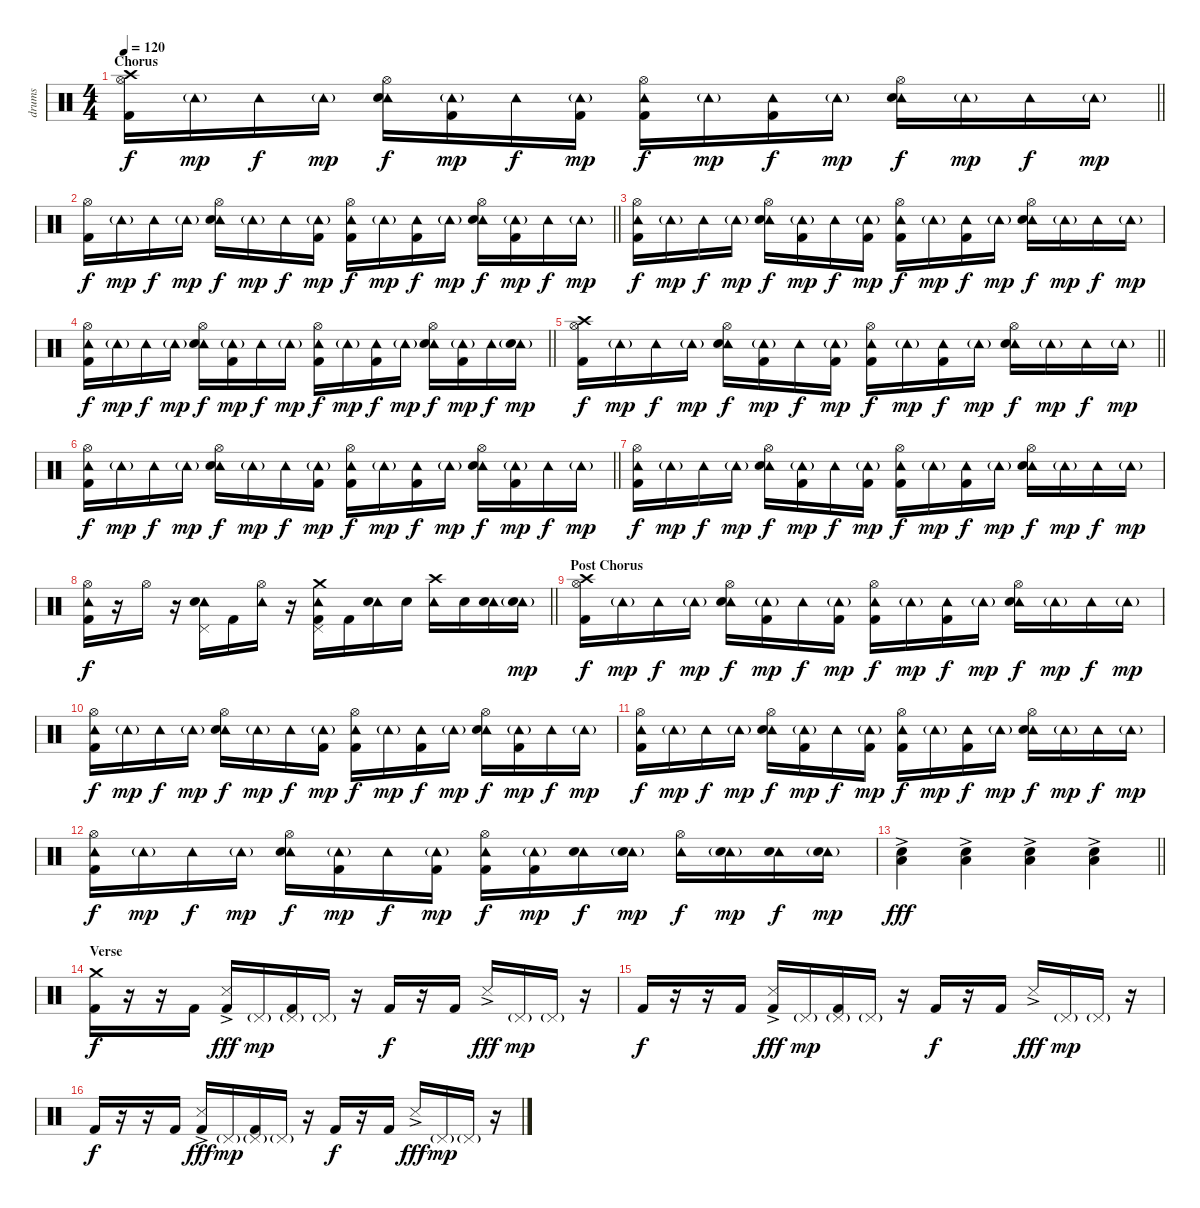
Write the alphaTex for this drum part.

\track ("drums" "drums") {instrument percussion}
\staff {score}
\articulation defaults
\ts (4 4)
\section ("" "Chorus")
\tempo 120
\clef neutral
\barLineRight lightlight
\ks c
("Hi-Hat (open)" "Crash high (hit)" "Kick (hit) 2").16{dy f} "Tambourine (hit)"{g}.16{dy mp} "Tambourine (hit)".16{dy f} "Tambourine (hit)"{g}.16{dy mp} ("Tambourine (hit)" "Hi-Hat (open)" "Electric Snare (hit)").16{dy f} ("Tambourine (hit)"{g} "Kick (hit) 2").16{dy mp} "Tambourine (hit)".16{dy f} ("Tambourine (hit)"{g} "Kick (hit) 2").16{dy mp} ("Tambourine (hit)" "Hi-Hat (open)" "Kick (hit) 2").16{dy f} "Tambourine (hit)"{g}.16{dy mp} ("Tambourine (hit)" "Kick (hit) 2").16{dy f} "Tambourine (hit)"{g}.16{dy mp} ("Tambourine (hit)" "Hi-Hat (open)" "Electric Snare (hit)").16{dy f} "Tambourine (hit)"{g}.16{dy mp} "Tambourine (hit)".16{dy f} "Tambourine (hit)"{g}.16{dy mp} |
\barLineRight lightlight
("Hi-Hat (open)" "Kick (hit) 2").16{dy f} "Tambourine (hit)"{g}.16{dy mp} "Tambourine (hit)".16{dy f} "Tambourine (hit)"{g}.16{dy mp} ("Tambourine (hit)" "Hi-Hat (open)" "Electric Snare (hit)").16{dy f} "Tambourine (hit)"{g}.16{dy mp} "Tambourine (hit)".16{dy f} ("Tambourine (hit)"{g} "Kick (hit) 2").16{dy mp} ("Tambourine (hit)" "Hi-Hat (open)" "Kick (hit) 2").16{dy f} "Tambourine (hit)"{g}.16{dy mp} ("Tambourine (hit)" "Kick (hit) 2").16{dy f} "Tambourine (hit)"{g}.16{dy mp} ("Tambourine (hit)" "Hi-Hat (open)" "Electric Snare (hit)").16{dy f} ("Tambourine (hit)"{g} "Kick (hit) 2").16{dy mp} "Tambourine (hit)".16{dy f} "Tambourine (hit)"{g}.16{dy mp} |
("Hi-Hat (open)" "Tambourine (hit)" "Kick (hit) 2").16{dy f} "Tambourine (hit)"{g}.16{dy mp} "Tambourine (hit)".16{dy f} "Tambourine (hit)"{g}.16{dy mp} ("Tambourine (hit)" "Hi-Hat (open)" "Electric Snare (hit)").16{dy f} ("Tambourine (hit)"{g} "Kick (hit) 2").16{dy mp} "Tambourine (hit)".16{dy f} ("Tambourine (hit)"{g} "Kick (hit) 2").16{dy mp} ("Tambourine (hit)" "Hi-Hat (open)" "Kick (hit) 2").16{dy f} "Tambourine (hit)"{g}.16{dy mp} ("Tambourine (hit)" "Kick (hit) 2").16{dy f} "Tambourine (hit)"{g}.16{dy mp} ("Tambourine (hit)" "Hi-Hat (open)" "Electric Snare (hit)").16{dy f} "Tambourine (hit)"{g}.16{dy mp} "Tambourine (hit)".16{dy f} "Tambourine (hit)"{g}.16{dy mp} |
\barLineRight lightlight
("Hi-Hat (open)" "Tambourine (hit)" "Kick (hit) 2").16{dy f} "Tambourine (hit)"{g}.16{dy mp} "Tambourine (hit)".16{dy f} "Tambourine (hit)"{g}.16{dy mp} ("Tambourine (hit)" "Hi-Hat (open)" "Electric Snare (hit)").16{dy f} ("Tambourine (hit)"{g} "Kick (hit) 2").16{dy mp} "Tambourine (hit)".16{dy f} "Tambourine (hit)"{g}.16{dy mp} ("Tambourine (hit)" "Hi-Hat (open)" "Kick (hit) 2").16{dy f} "Tambourine (hit)"{g}.16{dy mp} ("Tambourine (hit)" "Kick (hit) 2").16{dy f} "Tambourine (hit)"{g}.16{dy mp} ("Tambourine (hit)" "Hi-Hat (open)" "Electric Snare (hit)").16{dy f} ("Tambourine (hit)"{g} "Kick (hit) 2").16{dy mp} "Tambourine (hit)".16{dy f} ("Tambourine (hit)"{g} "Electric Snare (hit)").16{dy mp} |
\barLineRight lightlight
("Hi-Hat (open)" "Crash high (hit)" "Kick (hit) 2").16{dy f} "Tambourine (hit)"{g}.16{dy mp} "Tambourine (hit)".16{dy f} "Tambourine (hit)"{g}.16{dy mp} ("Tambourine (hit)" "Hi-Hat (open)" "Electric Snare (hit)").16{dy f} ("Tambourine (hit)"{g} "Kick (hit) 2").16{dy mp} "Tambourine (hit)".16{dy f} ("Tambourine (hit)"{g} "Kick (hit) 2").16{dy mp} ("Tambourine (hit)" "Hi-Hat (open)" "Kick (hit) 2").16{dy f} "Tambourine (hit)"{g}.16{dy mp} ("Tambourine (hit)" "Kick (hit) 2").16{dy f} "Tambourine (hit)"{g}.16{dy mp} ("Tambourine (hit)" "Hi-Hat (open)" "Electric Snare (hit)").16{dy f} "Tambourine (hit)"{g}.16{dy mp} "Tambourine (hit)".16{dy f} "Tambourine (hit)"{g}.16{dy mp} |
\barLineRight lightlight
("Hi-Hat (open)" "Tambourine (hit)" "Kick (hit) 2").16{dy f} "Tambourine (hit)"{g}.16{dy mp} "Tambourine (hit)".16{dy f} "Tambourine (hit)"{g}.16{dy mp} ("Tambourine (hit)" "Hi-Hat (open)" "Electric Snare (hit)").16{dy f} "Tambourine (hit)"{g}.16{dy mp} "Tambourine (hit)".16{dy f} ("Tambourine (hit)"{g} "Kick (hit) 2").16{dy mp} ("Tambourine (hit)" "Hi-Hat (open)" "Kick (hit) 2").16{dy f} "Tambourine (hit)"{g}.16{dy mp} ("Tambourine (hit)" "Kick (hit) 2").16{dy f} "Tambourine (hit)"{g}.16{dy mp} ("Tambourine (hit)" "Hi-Hat (open)" "Electric Snare (hit)").16{dy f} ("Tambourine (hit)"{g} "Kick (hit) 2").16{dy mp} "Tambourine (hit)".16{dy f} "Tambourine (hit)"{g}.16{dy mp} |
("Hi-Hat (open)" "Tambourine (hit)" "Kick (hit) 2").16{dy f} "Tambourine (hit)"{g}.16{dy mp} "Tambourine (hit)".16{dy f} "Tambourine (hit)"{g}.16{dy mp} ("Tambourine (hit)" "Hi-Hat (open)" "Electric Snare (hit)").16{dy f} ("Tambourine (hit)"{g} "Kick (hit) 2").16{dy mp} "Tambourine (hit)".16{dy f} ("Tambourine (hit)"{g} "Kick (hit) 2").16{dy mp} ("Tambourine (hit)" "Hi-Hat (open)" "Kick (hit) 2").16{dy f} "Tambourine (hit)"{g}.16{dy mp} ("Tambourine (hit)" "Kick (hit) 2").16{dy f} "Tambourine (hit)"{g}.16{dy mp} ("Tambourine (hit)" "Hi-Hat (open)" "Electric Snare (hit)").16{dy f} "Tambourine (hit)"{g}.16{dy mp} "Tambourine (hit)".16{dy f} "Tambourine (hit)"{g}.16{dy mp} |
\barLineRight lightlight
("Hi-Hat (open)" "Tambourine (hit)" "Kick (hit) 2").16{dy f} r.16 "Hi-Hat (open)".16 r.16 ("Tambourine (hit)" "Pedal Hi-Hat (hit)" "Electric Snare (hit)").16 "Kick (hit) 2".16 ("Tambourine (hit)" "Hi-Hat (open)").16 r.16 ("Tambourine (hit)" "Pedal Hi-Hat (hit)" "Crash medium (hit)" "Kick (hit) 2").16 "Kick (hit) 2".16 ("Tambourine (hit)" "Electric Snare (hit)").16 "Electric Snare (hit)".16 ("Tambourine (hit)" "Crash high (hit)").16 "Electric Snare (hit)".16 ("Tambourine (hit)" "Electric Snare (hit)").16 ("Tambourine (hit)"{g} "Electric Snare (hit)").16{dy mp} |
\section ("" "Post Chorus")
("Hi-Hat (open)" "Crash high (hit)" "Kick (hit) 2").16{dy f} "Tambourine (hit)"{g}.16{dy mp} "Tambourine (hit)".16{dy f} "Tambourine (hit)"{g}.16{dy mp} ("Tambourine (hit)" "Hi-Hat (open)" "Electric Snare (hit)").16{dy f} ("Tambourine (hit)"{g} "Kick (hit) 2").16{dy mp} "Tambourine (hit)".16{dy f} ("Tambourine (hit)"{g} "Kick (hit) 2").16{dy mp} ("Tambourine (hit)" "Hi-Hat (open)" "Kick (hit) 2").16{dy f} "Tambourine (hit)"{g}.16{dy mp} ("Tambourine (hit)" "Kick (hit) 2").16{dy f} "Tambourine (hit)"{g}.16{dy mp} ("Tambourine (hit)" "Hi-Hat (open)" "Electric Snare (hit)").16{dy f} "Tambourine (hit)"{g}.16{dy mp} "Tambourine (hit)".16{dy f} "Tambourine (hit)"{g}.16{dy mp} |
("Hi-Hat (open)" "Tambourine (hit)" "Kick (hit) 2").16{dy f} "Tambourine (hit)"{g}.16{dy mp} "Tambourine (hit)".16{dy f} "Tambourine (hit)"{g}.16{dy mp} ("Tambourine (hit)" "Hi-Hat (open)" "Electric Snare (hit)").16{dy f} "Tambourine (hit)"{g}.16{dy mp} "Tambourine (hit)".16{dy f} ("Tambourine (hit)"{g} "Kick (hit) 2").16{dy mp} ("Tambourine (hit)" "Hi-Hat (open)" "Kick (hit) 2").16{dy f} "Tambourine (hit)"{g}.16{dy mp} ("Tambourine (hit)" "Kick (hit) 2").16{dy f} "Tambourine (hit)"{g}.16{dy mp} ("Tambourine (hit)" "Hi-Hat (open)" "Electric Snare (hit)").16{dy f} ("Tambourine (hit)"{g} "Kick (hit) 2").16{dy mp} "Tambourine (hit)".16{dy f} "Tambourine (hit)"{g}.16{dy mp} |
("Hi-Hat (open)" "Tambourine (hit)" "Kick (hit) 2").16{dy f} "Tambourine (hit)"{g}.16{dy mp} "Tambourine (hit)".16{dy f} "Tambourine (hit)"{g}.16{dy mp} ("Tambourine (hit)" "Hi-Hat (open)" "Electric Snare (hit)").16{dy f} ("Tambourine (hit)"{g} "Kick (hit) 2").16{dy mp} "Tambourine (hit)".16{dy f} ("Tambourine (hit)"{g} "Kick (hit) 2").16{dy mp} ("Tambourine (hit)" "Hi-Hat (open)" "Kick (hit) 2").16{dy f} "Tambourine (hit)"{g}.16{dy mp} ("Tambourine (hit)" "Kick (hit) 2").16{dy f} "Tambourine (hit)"{g}.16{dy mp} ("Tambourine (hit)" "Hi-Hat (open)" "Electric Snare (hit)").16{dy f} "Tambourine (hit)"{g}.16{dy mp} "Tambourine (hit)".16{dy f} "Tambourine (hit)"{g}.16{dy mp} |
("Hi-Hat (open)" "Tambourine (hit)" "Kick (hit) 2").16{dy f} "Tambourine (hit)"{g}.16{dy mp} "Tambourine (hit)".16{dy f} "Tambourine (hit)"{g}.16{dy mp} ("Tambourine (hit)" "Hi-Hat (open)" "Electric Snare (hit)").16{dy f} ("Tambourine (hit)"{g} "Kick (hit) 2").16{dy mp} "Tambourine (hit)".16{dy f} ("Tambourine (hit)"{g} "Kick (hit) 2").16{dy mp} ("Tambourine (hit)" "Hi-Hat (open)" "Kick (hit) 2").16{dy f} ("Tambourine (hit)"{g} "Kick (hit) 2").16{dy mp} ("Tambourine (hit)" "Electric Snare (hit)").16{dy f} ("Tambourine (hit)"{g} "Electric Snare (hit)").16{dy mp} ("Tambourine (hit)" "Hi-Hat (open)").16{dy f} ("Tambourine (hit)"{g} "Electric Snare (hit)").16{dy mp} ("Tambourine (hit)" "Electric Snare (hit)").16{dy f} ("Tambourine (hit)"{g} "Electric Snare (hit)").16{dy mp} |
\barLineRight lightlight
("Low Floor Tom (hit)" "Hand Clap (hit)"{ac}).4{dy fff} ("Low Floor Tom (hit)" "Hand Clap (hit)"{ac}).4 ("Low Floor Tom (hit)" "Hand Clap (hit)"{ac}).4 ("Low Floor Tom (hit)" "Hand Clap (hit)"{ac}).4 |
\section ("" "Verse")
("Kick (hit) 2" "Crash medium (hit)").16{dy f volume 16 balance 8} r.16 r.16 "Kick (hit) 2".16 ("Kick (hit) 2" "Snare (side stick) 3"{ac}).16{dy fff} "Pedal Hi-Hat (hit)"{g}.16{dy mp} ("Kick (hit) 2" "Pedal Hi-Hat (hit)"{g}).16 "Pedal Hi-Hat (hit)"{g}.16 r.16 "Kick (hit) 2".16{dy f} r.16 "Kick (hit) 2".16 "Snare (side stick) 3"{ac}.16{dy fff} "Pedal Hi-Hat (hit)"{g}.16{dy mp} "Pedal Hi-Hat (hit)"{g}.16 r.16 |
"Kick (hit) 2".16{dy f} r.16 r.16 "Kick (hit) 2".16 ("Kick (hit) 2" "Snare (side stick) 3"{ac}).16{dy fff} "Pedal Hi-Hat (hit)"{g}.16{dy mp} ("Kick (hit) 2" "Pedal Hi-Hat (hit)"{g}).16 "Pedal Hi-Hat (hit)"{g}.16 r.16 "Kick (hit) 2".16{dy f} r.16 "Kick (hit) 2".16 "Snare (side stick) 3"{ac}.16{dy fff} "Pedal Hi-Hat (hit)"{g}.16{dy mp} "Pedal Hi-Hat (hit)"{g}.16 r.16 |
"Kick (hit) 2".16{dy f} r.16 r.16 "Kick (hit) 2".16 ("Kick (hit) 2" "Snare (side stick) 3"{ac}).16{dy fff} "Pedal Hi-Hat (hit)"{g}.16{dy mp} ("Kick (hit) 2" "Pedal Hi-Hat (hit)"{g}).16 "Pedal Hi-Hat (hit)"{g}.16 r.16 "Kick (hit) 2".16{dy f} r.16 "Kick (hit) 2".16 "Snare (side stick) 3"{ac}.16{dy fff} "Pedal Hi-Hat (hit)"{g}.16{dy mp} "Pedal Hi-Hat (hit)"{g}.16 r.16
